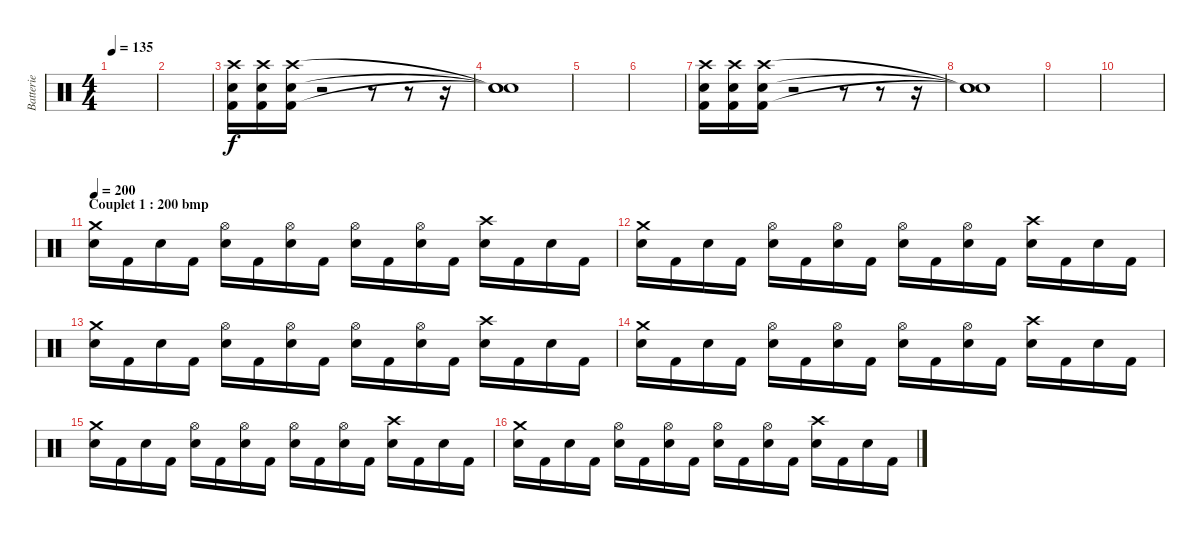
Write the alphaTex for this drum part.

\track ("Batterie" "Batterie") {instrument percussion}
\staff {score}
\articulation defaults
\ts (4 4)
\tempo 135
\clef neutral
\ks c
|
|
("Crash high (hit)" "Snare (hit) 2" "Kick (hit) 2").16 ("Crash high (hit)" "Snare (hit) 2" "Kick (hit) 2").16 ("Crash high (hit)" "Snare (hit) 2" "Kick (hit) 2").16 r.2 r.8 r.8 r.16 |
("Snare (hit)"{t} "Snare (hit)"{t} "Snare (hit)"{t}).1 |
|
|
("Crash high (hit)" "Snare (hit) 2" "Kick (hit) 2").16 ("Crash high (hit)" "Snare (hit) 2" "Kick (hit) 2").16 ("Crash high (hit)" "Snare (hit) 2" "Kick (hit) 2").16 r.2 r.8 r.8 r.16 |
("Snare (hit)"{t} "Snare (hit)"{t} "Snare (hit)"{t}).1 |
|
|
\section ("" "Couplet 1 : 200 bmp")
\tempo 200
("Snare (hit) 2" "Crash medium (hit)").16 "Kick (hit) 2".16 "Snare (hit) 2".16 "Kick (hit) 2".16 ("Snare (hit) 2" "Hi-Hat (open)").16 "Kick (hit) 2".16 ("Snare (hit) 2" "Hi-Hat (open)").16 "Kick (hit) 2".16 ("Snare (hit) 2" "Hi-Hat (open)").16 "Kick (hit) 2".16 ("Snare (hit) 2" "Hi-Hat (open)").16 "Kick (hit) 2".16 ("Snare (hit) 2" "Crash high (hit)").16 "Kick (hit) 2".16 "Snare (hit) 2".16 "Kick (hit) 2".16 |
("Snare (hit) 2" "Crash medium (hit)").16 "Kick (hit) 2".16 "Snare (hit) 2".16 "Kick (hit) 2".16 ("Snare (hit) 2" "Hi-Hat (open)").16 "Kick (hit) 2".16 ("Snare (hit) 2" "Hi-Hat (open)").16 "Kick (hit) 2".16 ("Snare (hit) 2" "Hi-Hat (open)").16 "Kick (hit) 2".16 ("Snare (hit) 2" "Hi-Hat (open)").16 "Kick (hit) 2".16 ("Snare (hit) 2" "Crash high (hit)").16 "Kick (hit) 2".16 "Snare (hit) 2".16 "Kick (hit) 2".16 |
("Snare (hit) 2" "Crash medium (hit)").16 "Kick (hit) 2".16 "Snare (hit) 2".16 "Kick (hit) 2".16 ("Snare (hit) 2" "Hi-Hat (open)").16 "Kick (hit) 2".16 ("Snare (hit) 2" "Hi-Hat (open)").16 "Kick (hit) 2".16 ("Snare (hit) 2" "Hi-Hat (open)").16 "Kick (hit) 2".16 ("Snare (hit) 2" "Hi-Hat (open)").16 "Kick (hit) 2".16 ("Snare (hit) 2" "Crash high (hit)").16 "Kick (hit) 2".16 "Snare (hit) 2".16 "Kick (hit) 2".16 |
("Snare (hit) 2" "Crash medium (hit)").16 "Kick (hit) 2".16 "Snare (hit) 2".16 "Kick (hit) 2".16 ("Snare (hit) 2" "Hi-Hat (open)").16 "Kick (hit) 2".16 ("Snare (hit) 2" "Hi-Hat (open)").16 "Kick (hit) 2".16 ("Snare (hit) 2" "Hi-Hat (open)").16 "Kick (hit) 2".16 ("Snare (hit) 2" "Hi-Hat (open)").16 "Kick (hit) 2".16 ("Snare (hit) 2" "Crash high (hit)").16 "Kick (hit) 2".16 "Snare (hit) 2".16 "Kick (hit) 2".16 |
("Snare (hit) 2" "Crash medium (hit)").16 "Kick (hit) 2".16 "Snare (hit) 2".16 "Kick (hit) 2".16 ("Snare (hit) 2" "Hi-Hat (open)").16 "Kick (hit) 2".16 ("Snare (hit) 2" "Hi-Hat (open)").16 "Kick (hit) 2".16 ("Snare (hit) 2" "Hi-Hat (open)").16 "Kick (hit) 2".16 ("Snare (hit) 2" "Hi-Hat (open)").16 "Kick (hit) 2".16 ("Snare (hit) 2" "Crash high (hit)").16 "Kick (hit) 2".16 "Snare (hit) 2".16 "Kick (hit) 2".16 |
("Snare (hit) 2" "Crash medium (hit)").16 "Kick (hit) 2".16 "Snare (hit) 2".16 "Kick (hit) 2".16 ("Snare (hit) 2" "Hi-Hat (open)").16 "Kick (hit) 2".16 ("Snare (hit) 2" "Hi-Hat (open)").16 "Kick (hit) 2".16 ("Snare (hit) 2" "Hi-Hat (open)").16 "Kick (hit) 2".16 ("Snare (hit) 2" "Hi-Hat (open)").16 "Kick (hit) 2".16 ("Snare (hit) 2" "Crash high (hit)").16 "Kick (hit) 2".16 "Snare (hit) 2".16 "Kick (hit) 2".16
